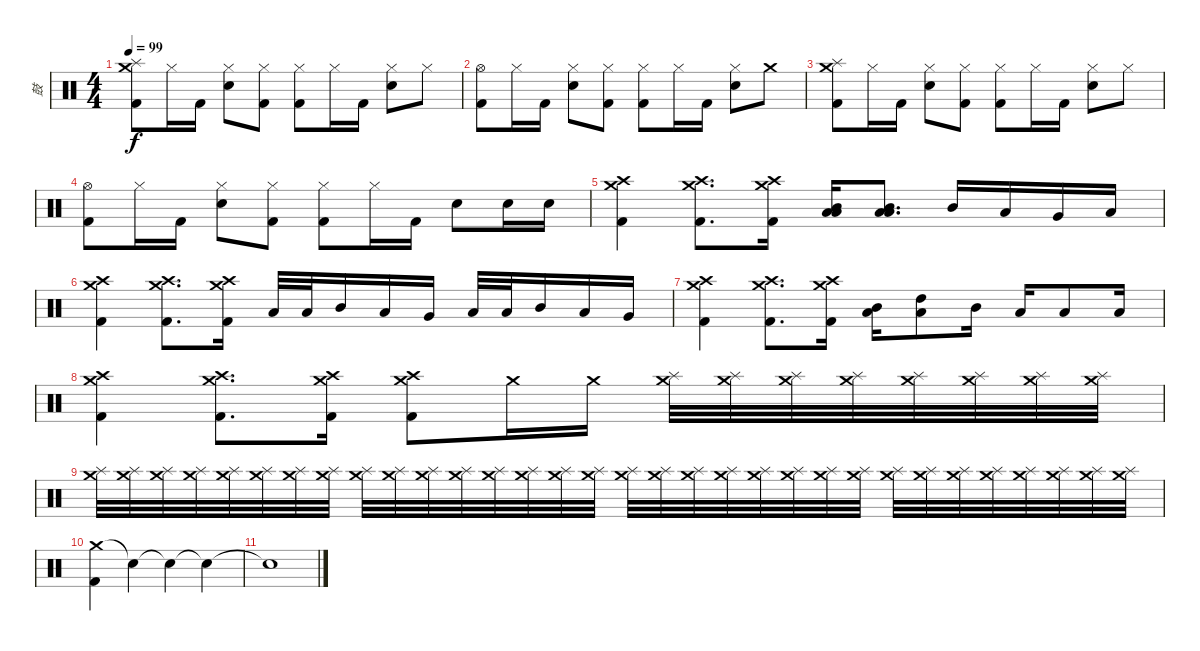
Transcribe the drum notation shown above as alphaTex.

\track ("鼓" "鼓") {instrument percussion}
\staff {score}
\articulation defaults
\ts (4 4)
\tempo 99
\clef neutral
\ks c
("Splash (hit)" "Crash medium (hit)" "Kick (hit) 2").8{dy f} "Hi-Hat (closed)".16 "Kick (hit) 2".16 ("Hi-Hat (closed)" "Electric Snare (hit)").8 ("Hi-Hat (closed)" "Kick (hit) 2").8 ("Hi-Hat (closed)" "Kick (hit) 2").8 "Hi-Hat (closed)".16 "Kick (hit) 2".16 ("Hi-Hat (closed)" "Electric Snare (hit)").8 "Hi-Hat (closed)".8 |
("Hi-Hat (open)" "Kick (hit) 2").8 "Hi-Hat (closed)".16 "Kick (hit) 2".16 ("Hi-Hat (closed)" "Electric Snare (hit)").8 ("Hi-Hat (closed)" "Kick (hit) 2").8 ("Hi-Hat (closed)" "Kick (hit) 2").8 "Hi-Hat (closed)".16 "Kick (hit) 2".16 ("Hi-Hat (closed)" "Electric Snare (hit)").8 "Crash medium (hit)".8 |
("Splash (hit)" "Crash medium (hit)" "Kick (hit) 2").8 "Hi-Hat (closed)".16 "Kick (hit) 2".16 ("Hi-Hat (closed)" "Electric Snare (hit)").8 ("Hi-Hat (closed)" "Kick (hit) 2").8 ("Hi-Hat (closed)" "Kick (hit) 2").8 "Hi-Hat (closed)".16 "Kick (hit) 2".16 ("Hi-Hat (closed)" "Electric Snare (hit)").8 "Hi-Hat (closed)".8 |
("Hi-Hat (open)" "Kick (hit) 2").8 "Hi-Hat (closed)".16 "Kick (hit) 2".16 ("Hi-Hat (closed)" "Electric Snare (hit)").8 ("Hi-Hat (closed)" "Kick (hit) 2").8 ("Hi-Hat (closed)" "Kick (hit) 2").8 "Hi-Hat (closed)".16 "Kick (hit) 2".16 "Electric Snare (hit)".8 "Electric Snare (hit)".16 "Electric Snare (hit)".16 |
("Crash high (hit)" "Crash medium (hit)" "Kick (hit) 2").4 ("Crash high (hit)" "Crash medium (hit)" "Kick (hit) 2").8{d} ("Crash high (hit)" "Crash medium (hit)" "Kick (hit) 2").16 ("Low Tom (hit)" "Mid Tom (hit)" "Low Floor Tom (hit)").16 ("Mid Tom (hit)" "Low Tom (hit)" "Low Floor Tom (hit)").8{d} "Mid Tom (hit)".16 "Low Tom (hit)".16 "Very Low Tom (hit)".16 "Low Floor Tom (hit)".16 |
("Crash high (hit)" "Crash medium (hit)" "Kick (hit) 2").4 ("Crash high (hit)" "Crash medium (hit)" "Kick (hit) 2").8{d} ("Crash high (hit)" "Crash medium (hit)" "Kick (hit) 2").16 "Low Floor Tom (hit)".32 "Low Tom (hit)".32 "Mid Tom (hit)".16 "Low Tom (hit)".16 "Very Low Tom (hit)".16 "Low Floor Tom (hit)".32 "Low Tom (hit)".32 "Mid Tom (hit)".16 "Low Tom (hit)".16 "Very Low Tom (hit)".16 |
("Crash high (hit)" "Crash medium (hit)" "Kick (hit) 2").4 ("Crash high (hit)" "Crash medium (hit)" "Kick (hit) 2").8{d} ("Crash high (hit)" "Crash medium (hit)" "Kick (hit) 2").16 ("Mid Tom (hit)" "Low Floor Tom (hit)").16 ("High Tom (hit)" "Low Floor Tom (hit)").8 "Mid Tom (hit)".16 "Low Tom (hit)".16 "Low Tom (hit)".8 "Low Floor Tom (hit)".16 |
("Crash medium (hit)" "Crash high (hit)" "Kick (hit) 2").4 ("Crash medium (hit)" "Crash high (hit)" "Kick (hit) 2").8{d} ("Crash medium (hit)" "Crash high (hit)" "Kick (hit) 2").16 ("Crash medium (hit)" "Crash high (hit)" "Kick (hit) 2").8 "Crash medium (hit)".16 "Crash medium (hit)".16 ("Crash medium (hit)" "Splash (hit)").32 ("Crash medium (hit)" "Splash (hit)").32 ("Crash medium (hit)" "Splash (hit)").32 ("Crash medium (hit)" "Splash (hit)").32 ("Crash medium (hit)" "Splash (hit)").32 ("Crash medium (hit)" "Splash (hit)").32 ("Crash medium (hit)" "Splash (hit)").32 ("Crash medium (hit)" "Splash (hit)").32 |
("Crash medium (hit)" "Splash (hit)").32{volume 7} ("Crash medium (hit)" "Splash (hit)").32 ("Crash medium (hit)" "Splash (hit)").32 ("Crash medium (hit)" "Splash (hit)").32 ("Crash medium (hit)" "Splash (hit)").32 ("Crash medium (hit)" "Splash (hit)").32 ("Crash medium (hit)" "Splash (hit)").32 ("Crash medium (hit)" "Splash (hit)").32 ("Crash medium (hit)" "Splash (hit)").32 ("Crash medium (hit)" "Splash (hit)").32 ("Crash medium (hit)" "Splash (hit)").32 ("Crash medium (hit)" "Splash (hit)").32 ("Crash medium (hit)" "Splash (hit)").32 ("Crash medium (hit)" "Splash (hit)").32 ("Crash medium (hit)" "Splash (hit)").32 ("Crash medium (hit)" "Splash (hit)").32 ("Crash medium (hit)" "Splash (hit)").32 ("Crash medium (hit)" "Splash (hit)").32 ("Crash medium (hit)" "Splash (hit)").32 ("Crash medium (hit)" "Splash (hit)").32 ("Crash medium (hit)" "Splash (hit)").32 ("Crash medium (hit)" "Splash (hit)").32 ("Crash medium (hit)" "Splash (hit)").32 ("Crash medium (hit)" "Splash (hit)").32 ("Crash medium (hit)" "Splash (hit)").32 ("Crash medium (hit)" "Splash (hit)").32 ("Crash medium (hit)" "Splash (hit)").32 ("Crash medium (hit)" "Splash (hit)").32 ("Crash medium (hit)" "Splash (hit)").32 ("Crash medium (hit)" "Splash (hit)").32 ("Crash medium (hit)" "Splash (hit)").32 ("Crash medium (hit)" "Splash (hit)").32 |
("Crash medium (hit)" "Kick (hit) 2").4{volume 14} "Snare (hit)"{t}.4 "Snare (hit)"{t}.4 "Snare (hit)"{t}.4 |
"Snare (hit)"{t}.1
